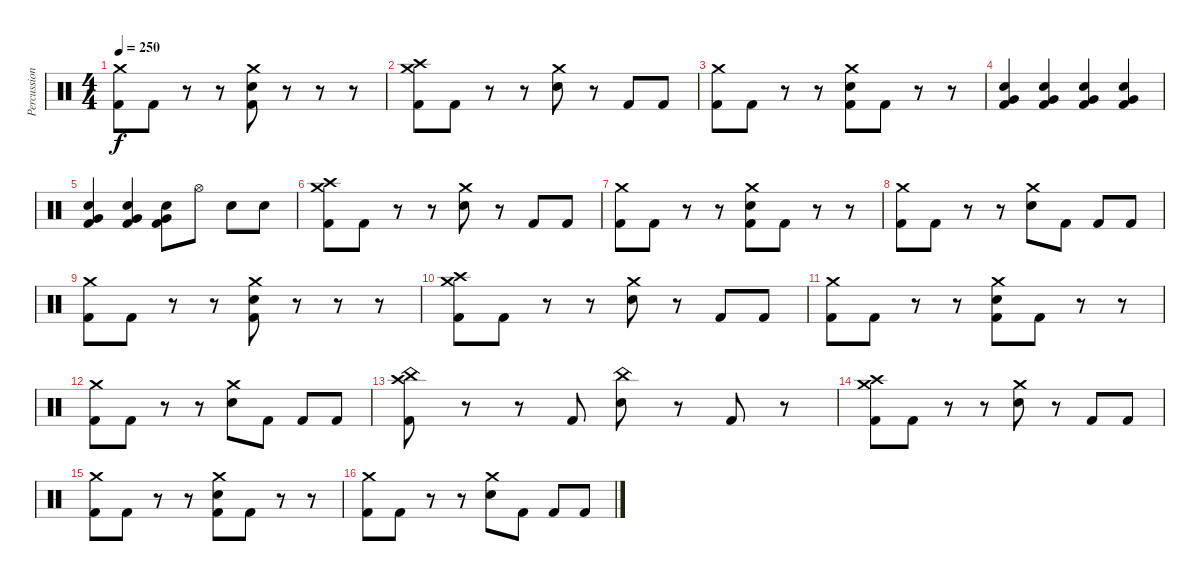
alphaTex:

\track ("Percussion" "Percussion") {instrument percussion}
\staff {score}
\articulation defaults
\ts (4 4)
\tempo 250
\clef neutral
\ks c
("Crash medium (hit)" "Kick (hit) 2").8{dy f} "Kick (hit) 2".8 r.8 r.8 ("Crash medium (hit)" "Electric Snare (hit)" "Kick (hit) 2").8 r.8 r.8 r.8 |
("Crash high (hit)" "Crash medium (hit)" "Kick (hit) 2").8 "Kick (hit) 2".8 r.8 r.8 ("Crash medium (hit)" "Electric Snare (hit)").8 r.8 "Kick (hit) 2".8 "Kick (hit) 2".8 |
("Crash medium (hit)" "Kick (hit) 2").8 "Kick (hit) 2".8 r.8 r.8 ("Crash medium (hit)" "Electric Snare (hit)" "Kick (hit) 2").8 "Kick (hit) 2".8 r.8 r.8 |
("Very Low Tom (hit)" "Electric Snare (hit)" "Kick (hit) 2").4 ("Very Low Tom (hit)" "Electric Snare (hit)" "Kick (hit) 2").4 ("Very Low Tom (hit)" "Electric Snare (hit)" "Kick (hit) 2").4 ("Very Low Tom (hit)" "Electric Snare (hit)" "Kick (hit) 2").4 |
("Very Low Tom (hit)" "Electric Snare (hit)" "Kick (hit) 2").4 ("Very Low Tom (hit)" "Electric Snare (hit)" "Kick (hit) 2").4 ("Very Low Tom (hit)" "Electric Snare (hit)" "Kick (hit) 2").8 "Hi-Hat (open)".8 "Electric Snare (hit)".8 "Electric Snare (hit)".8 |
("Crash high (hit)" "Crash medium (hit)" "Kick (hit) 2").8 "Kick (hit) 2".8 r.8 r.8 ("Crash medium (hit)" "Electric Snare (hit)").8 r.8 "Kick (hit) 2".8 "Kick (hit) 2".8 |
("Crash medium (hit)" "Kick (hit) 2").8 "Kick (hit) 2".8 r.8 r.8 ("Crash medium (hit)" "Electric Snare (hit)" "Kick (hit) 2").8 "Kick (hit) 2".8 r.8 r.8 |
("Crash medium (hit)" "Kick (hit) 2").8 "Kick (hit) 2".8 r.8 r.8 ("Crash medium (hit)" "Electric Snare (hit)").8 "Kick (hit) 2".8 "Kick (hit) 2".8 "Kick (hit) 2".8 |
("Crash medium (hit)" "Kick (hit) 2").8 "Kick (hit) 2".8 r.8 r.8 ("Crash medium (hit)" "Electric Snare (hit)" "Kick (hit) 2").8 r.8 r.8 r.8 |
("Crash high (hit)" "Crash medium (hit)" "Kick (hit) 2").8 "Kick (hit) 2".8 r.8 r.8 ("Crash medium (hit)" "Electric Snare (hit)").8 r.8 "Kick (hit) 2".8 "Kick (hit) 2".8 |
("Crash medium (hit)" "Kick (hit) 2").8 "Kick (hit) 2".8 r.8 r.8 ("Crash medium (hit)" "Electric Snare (hit)" "Kick (hit) 2").8 "Kick (hit) 2".8 r.8 r.8 |
("Crash medium (hit)" "Kick (hit) 2").8 "Kick (hit) 2".8 r.8 r.8 ("Crash medium (hit)" "Electric Snare (hit)").8 "Kick (hit) 2".8 "Kick (hit) 2".8 "Kick (hit) 2".8 |
("Crash high (hit)" "China (hit)" "Kick (hit) 2").8 r.8 r.8 "Kick (hit) 2".8 ("China (hit)" "Electric Snare (hit)").8 r.8 "Kick (hit) 2".8 r.8 |
("Crash high (hit)" "Crash medium (hit)" "Kick (hit) 2").8 "Kick (hit) 2".8 r.8 r.8 ("Crash medium (hit)" "Electric Snare (hit)").8 r.8 "Kick (hit) 2".8 "Kick (hit) 2".8 |
("Crash medium (hit)" "Kick (hit) 2").8 "Kick (hit) 2".8 r.8 r.8 ("Crash medium (hit)" "Electric Snare (hit)" "Kick (hit) 2").8 "Kick (hit) 2".8 r.8 r.8 |
("Crash medium (hit)" "Kick (hit) 2").8 "Kick (hit) 2".8 r.8 r.8 ("Crash medium (hit)" "Electric Snare (hit)").8 "Kick (hit) 2".8 "Kick (hit) 2".8 "Kick (hit) 2".8
